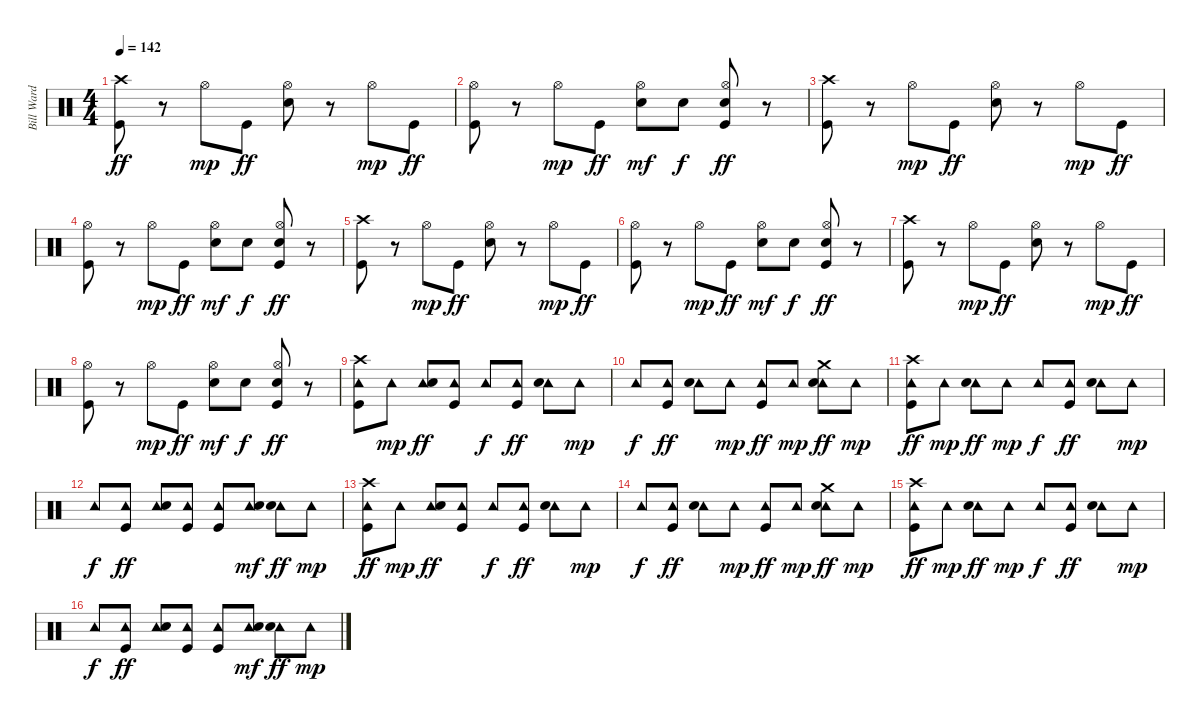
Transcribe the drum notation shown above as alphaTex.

\track ("Bill Ward" "Bill Ward") {instrument percussion}
\staff {score}
\articulation defaults
\ts (4 4)
\tempo 142
\clef neutral
\ks c
("Crash high (hit)" "Kick (hit)").8{dy ff} r.8 "Hi-Hat (open)".8{dy mp} "Kick (hit)".8{dy ff} ("Hi-Hat (open)" "Snare (hit) 2").8 r.8 "Hi-Hat (open)".8{dy mp} "Kick (hit)".8{dy ff} |
("Hi-Hat (open)" "Kick (hit)").8 r.8 "Hi-Hat (open)".8{dy mp} "Kick (hit)".8{dy ff} ("Hi-Hat (open)" "Snare (hit) 2").8{dy mf} "Snare (hit) 2".8{dy f} ("Hi-Hat (open)" "Snare (hit) 2" "Kick (hit)").8{dy ff} r.8 |
("Crash high (hit)" "Kick (hit)").8 r.8 "Hi-Hat (open)".8{dy mp} "Kick (hit)".8{dy ff} ("Hi-Hat (open)" "Snare (hit) 2").8 r.8 "Hi-Hat (open)".8{dy mp} "Kick (hit)".8{dy ff} |
("Hi-Hat (open)" "Kick (hit)").8 r.8 "Hi-Hat (open)".8{dy mp} "Kick (hit)".8{dy ff} ("Hi-Hat (open)" "Snare (hit) 2").8{dy mf} "Snare (hit) 2".8{dy f} ("Hi-Hat (open)" "Snare (hit) 2" "Kick (hit)").8{dy ff} r.8 |
("Crash high (hit)" "Kick (hit)").8 r.8 "Hi-Hat (open)".8{dy mp} "Kick (hit)".8{dy ff} ("Hi-Hat (open)" "Snare (hit) 2").8 r.8 "Hi-Hat (open)".8{dy mp} "Kick (hit)".8{dy ff} |
("Hi-Hat (open)" "Kick (hit)").8 r.8 "Hi-Hat (open)".8{dy mp} "Kick (hit)".8{dy ff} ("Hi-Hat (open)" "Snare (hit) 2").8{dy mf} "Snare (hit) 2".8{dy f} ("Hi-Hat (open)" "Snare (hit) 2" "Kick (hit)").8{dy ff} r.8 |
("Crash high (hit)" "Kick (hit)").8 r.8 "Hi-Hat (open)".8{dy mp} "Kick (hit)".8{dy ff} ("Hi-Hat (open)" "Snare (hit) 2").8 r.8 "Hi-Hat (open)".8{dy mp} "Kick (hit)".8{dy ff} |
("Hi-Hat (open)" "Kick (hit)").8 r.8 "Hi-Hat (open)".8{dy mp} "Kick (hit)".8{dy ff} ("Hi-Hat (open)" "Snare (hit) 2").8{dy mf} "Snare (hit) 2".8{dy f} ("Hi-Hat (open)" "Snare (hit) 2" "Kick (hit)").8{dy ff} r.8 |
("Crash high (hit)" "Tambourine (hit)" "Kick (hit)").8 "Tambourine (hit)".8{dy mp} ("Tambourine (hit)" "Snare (hit) 2").8{dy ff} ("Tambourine (hit)" "Kick (hit)").8 "Tambourine (hit)".8{dy f} ("Tambourine (hit)" "Kick (hit)").8{dy ff} ("Tambourine (hit)" "Snare (hit) 2").8 "Tambourine (hit)".8{dy mp} |
"Tambourine (hit)".8{dy f} ("Tambourine (hit)" "Kick (hit)").8{dy ff} ("Tambourine (hit)" "Snare (hit) 2").8 "Tambourine (hit)".8{dy mp} ("Tambourine (hit)" "Kick (hit)").8{dy ff} "Tambourine (hit)".8{dy mp} ("Crash medium (hit)" "Tambourine (hit)" "Snare (hit) 2").8{dy ff} "Tambourine (hit)".8{dy mp} |
("Crash high (hit)" "Tambourine (hit)" "Kick (hit)").8{dy ff} "Tambourine (hit)".8{dy mp} ("Tambourine (hit)" "Snare (hit) 2").8{dy ff} "Tambourine (hit)".8{dy mp} "Tambourine (hit)".8{dy f} ("Tambourine (hit)" "Kick (hit)").8{dy ff} ("Tambourine (hit)" "Snare (hit) 2").8 "Tambourine (hit)".8{dy mp} |
"Tambourine (hit)".8{dy f} ("Tambourine (hit)" "Kick (hit)").8{dy ff} ("Tambourine (hit)" "Snare (hit) 2").8 ("Tambourine (hit)" "Kick (hit)").8 ("Tambourine (hit)" "Kick (hit)").8 ("Tambourine (hit)" "Snare (hit) 2").8{dy mf} ("Tambourine (hit)" "Snare (hit) 2").8{dy ff} "Tambourine (hit)".8{dy mp} |
("Crash high (hit)" "Tambourine (hit)" "Kick (hit)").8{dy ff} "Tambourine (hit)".8{dy mp} ("Tambourine (hit)" "Snare (hit) 2").8{dy ff} ("Tambourine (hit)" "Kick (hit)").8 "Tambourine (hit)".8{dy f} ("Tambourine (hit)" "Kick (hit)").8{dy ff} ("Tambourine (hit)" "Snare (hit) 2").8 "Tambourine (hit)".8{dy mp} |
"Tambourine (hit)".8{dy f} ("Tambourine (hit)" "Kick (hit)").8{dy ff} ("Tambourine (hit)" "Snare (hit) 2").8 "Tambourine (hit)".8{dy mp} ("Tambourine (hit)" "Kick (hit)").8{dy ff} "Tambourine (hit)".8{dy mp} ("Crash medium (hit)" "Tambourine (hit)" "Snare (hit) 2").8{dy ff} "Tambourine (hit)".8{dy mp} |
("Crash high (hit)" "Tambourine (hit)" "Kick (hit)").8{dy ff} "Tambourine (hit)".8{dy mp} ("Tambourine (hit)" "Snare (hit) 2").8{dy ff} "Tambourine (hit)".8{dy mp} "Tambourine (hit)".8{dy f} ("Tambourine (hit)" "Kick (hit)").8{dy ff} ("Tambourine (hit)" "Snare (hit) 2").8 "Tambourine (hit)".8{dy mp} |
"Tambourine (hit)".8{dy f} ("Tambourine (hit)" "Kick (hit)").8{dy ff} ("Tambourine (hit)" "Snare (hit) 2").8 ("Tambourine (hit)" "Kick (hit)").8 ("Tambourine (hit)" "Kick (hit)").8 ("Tambourine (hit)" "Snare (hit) 2").8{dy mf} ("Tambourine (hit)" "Snare (hit) 2").8{dy ff} "Tambourine (hit)".8{dy mp}
